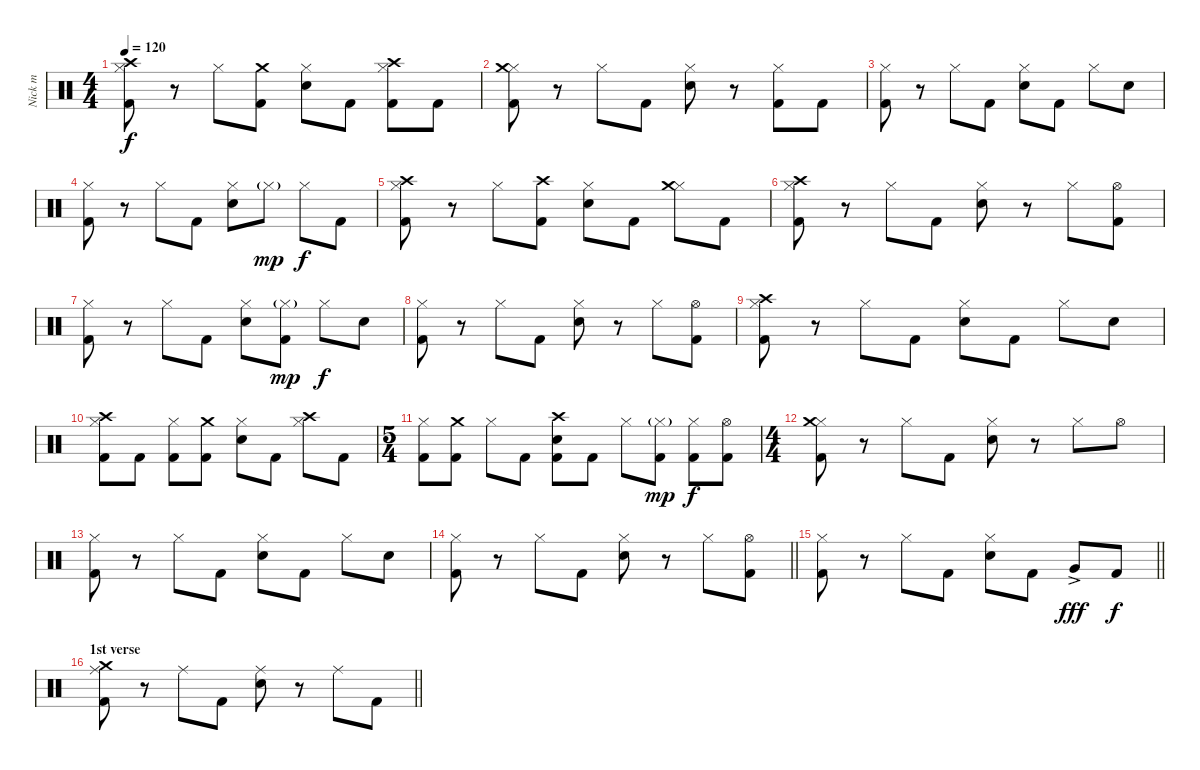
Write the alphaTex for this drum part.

\track ("Nick m" "Nick m") {instrument percussion}
\staff {score}
\articulation defaults
\ts (4 4)
\tempo 120
\clef neutral
\ks c
("Hi-Hat (closed)" "Crash high (hit)" "Kick (hit) 2").8{dy f} r.8 "Hi-Hat (closed)".8 ("Crash medium (hit)" "Kick (hit) 2").8 ("Hi-Hat (closed)" "Snare (hit) 2").8 "Kick (hit) 2".8 ("Hi-Hat (closed)" "Crash high (hit)" "Kick (hit) 2").8 "Kick (hit) 2".8 |
("Hi-Hat (closed)" "Crash medium (hit)" "Kick (hit) 2").8 r.8 "Hi-Hat (closed)".8 "Kick (hit) 2".8 ("Hi-Hat (closed)" "Snare (hit) 2").8 r.8 ("Hi-Hat (closed)" "Kick (hit) 2").8 "Kick (hit) 2".8 |
("Hi-Hat (closed)" "Kick (hit) 2").8 r.8 "Hi-Hat (closed)".8 "Kick (hit) 2".8 ("Hi-Hat (closed)" "Snare (hit) 2").8 "Kick (hit) 2".8 "Hi-Hat (closed)".8 "Snare (hit) 2".8 |
("Hi-Hat (closed)" "Kick (hit) 2").8 r.8 "Hi-Hat (closed)".8 "Kick (hit) 2".8 ("Hi-Hat (closed)" "Snare (hit) 2").8 "Hi-Hat (closed)"{g}.8{dy mp} "Hi-Hat (closed)".8{dy f} "Kick (hit) 2".8 |
("Hi-Hat (closed)" "Crash high (hit)" "Kick (hit) 2").8 r.8 "Hi-Hat (closed)".8 ("Crash high (hit)" "Kick (hit) 2").8 ("Hi-Hat (closed)" "Snare (hit) 2").8 "Kick (hit) 2".8 ("Hi-Hat (closed)" "Crash medium (hit)").8 "Kick (hit) 2".8 |
("Hi-Hat (closed)" "Crash high (hit)" "Kick (hit) 2").8 r.8 "Hi-Hat (closed)".8 "Kick (hit) 2".8 ("Hi-Hat (closed)" "Snare (hit) 2").8 r.8 "Hi-Hat (closed)".8 ("Hi-Hat (open)" "Kick (hit) 2").8 |
("Hi-Hat (closed)" "Kick (hit) 2").8 r.8 "Hi-Hat (closed)".8 "Kick (hit) 2".8 ("Hi-Hat (closed)" "Snare (hit) 2").8 ("Hi-Hat (closed)"{g} "Kick (hit) 2").8{dy mp} "Hi-Hat (closed)".8{dy f} "Snare (hit) 2".8 |
("Hi-Hat (closed)" "Kick (hit) 2").8 r.8 "Hi-Hat (closed)".8 "Kick (hit) 2".8 ("Hi-Hat (closed)" "Snare (hit) 2").8 r.8 "Hi-Hat (closed)".8 ("Hi-Hat (open)" "Kick (hit) 2").8 |
("Hi-Hat (closed)" "Crash high (hit)" "Kick (hit) 2").8 r.8 "Hi-Hat (closed)".8 "Kick (hit) 2".8 ("Hi-Hat (closed)" "Snare (hit) 2").8 "Kick (hit) 2".8 "Hi-Hat (closed)".8 "Snare (hit) 2".8 |
("Hi-Hat (closed)" "Crash high (hit)" "Kick (hit) 2").8 "Kick (hit) 2".8 ("Hi-Hat (closed)" "Kick (hit) 2").8 ("Crash medium (hit)" "Kick (hit) 2").8 ("Hi-Hat (closed)" "Snare (hit) 2").8 "Kick (hit) 2".8 ("Hi-Hat (closed)" "Crash high (hit)").8 "Kick (hit) 2".8 |
\ts (5 4)
("Hi-Hat (closed)" "Kick (hit) 2").8 ("Crash medium (hit)" "Kick (hit) 2").8 "Hi-Hat (closed)".8 "Kick (hit) 2".8 ("Crash high (hit)" "Snare (hit) 2" "Kick (hit) 2").8 "Kick (hit) 2".8 "Hi-Hat (closed)".8 ("Hi-Hat (closed)"{g} "Kick (hit) 2").8{dy mp} ("Hi-Hat (closed)" "Kick (hit) 2").8{dy f} ("Hi-Hat (open)" "Kick (hit) 2").8 |
\ts (4 4)
("Hi-Hat (closed)" "Crash medium (hit)" "Kick (hit) 2").8 r.8 "Hi-Hat (closed)".8 "Kick (hit) 2".8 ("Hi-Hat (closed)" "Snare (hit) 2").8 r.8 "Hi-Hat (closed)".8 "Hi-Hat (open)".8 |
("Hi-Hat (closed)" "Kick (hit) 2").8 r.8 "Hi-Hat (closed)".8 "Kick (hit) 2".8 ("Hi-Hat (closed)" "Snare (hit) 2").8 "Kick (hit) 2".8 "Hi-Hat (closed)".8 "Snare (hit) 2".8 |
\barLineRight lightlight
("Hi-Hat (closed)" "Kick (hit) 2").8 r.8 "Hi-Hat (closed)".8 "Kick (hit) 2".8 ("Hi-Hat (closed)" "Snare (hit) 2").8 r.8 "Hi-Hat (closed)".8 ("Hi-Hat (open)" "Kick (hit) 2").8 |
\barLineRight lightlight
("Hi-Hat (closed)" "Kick (hit) 2").8 r.8 "Hi-Hat (closed)".8 "Kick (hit) 2".8 ("Hi-Hat (closed)" "Snare (hit) 2").8 "Kick (hit) 2".8 "Very Low Tom (hit)"{ac}.8{dy fff} "Kick (hit) 2".8{dy f} |
\section ("" "1st verse")
\barLineRight lightlight
("Crash medium (hit)" "Ride (middle)" "Kick (hit) 2").8 r.8 "Ride (middle)".8 "Kick (hit) 2".8 ("Ride (middle)" "Snare (hit) 2").8 r.8 "Ride (middle)".8 "Kick (hit) 2".8
